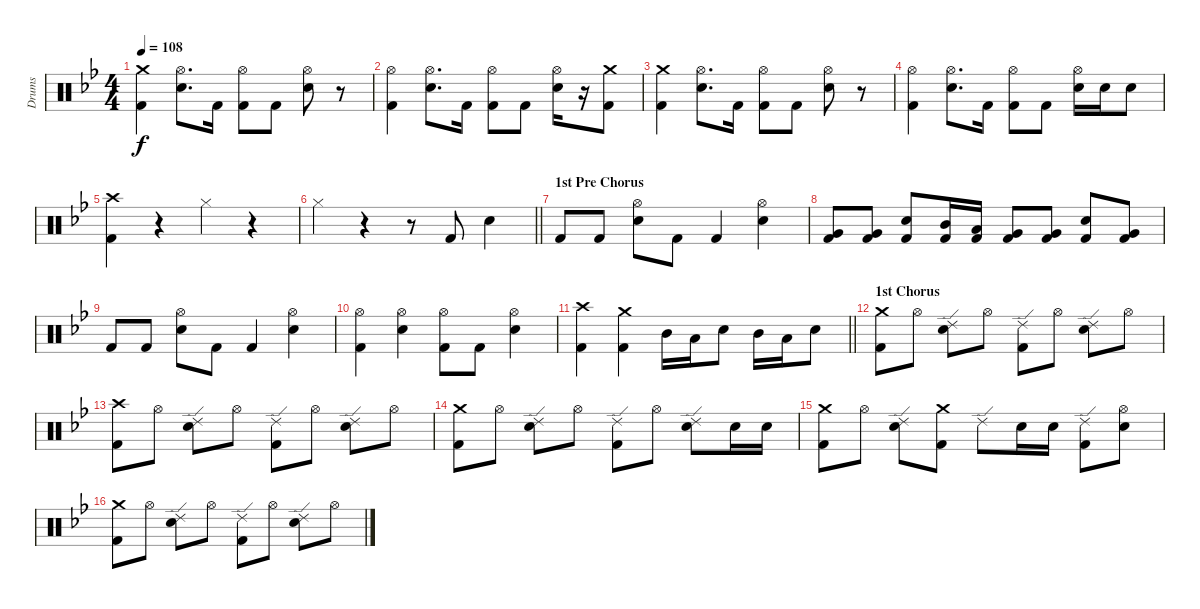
\track ("Drums" "Drums") {instrument percussion}
\staff {score}
\articulation defaults
\ts (4 4)
\tempo 108
\clef neutral
\ks gminor
("Crash medium (hit)" "Kick (hit) 2").4{dy f} ("Hi-Hat (open)" "Snare (hit) 2").8{d} "Kick (hit) 2".16 ("Hi-Hat (open)" "Kick (hit) 2").8 "Kick (hit) 2".8 ("Hi-Hat (open)" "Snare (hit) 2").8 r.8 |
("Hi-Hat (open)" "Kick (hit) 2").4 ("Hi-Hat (open)" "Snare (hit) 2").8{d} "Kick (hit) 2".16 ("Hi-Hat (open)" "Kick (hit) 2").8 "Kick (hit) 2".8 ("Hi-Hat (open)" "Snare (hit) 2").16 r.16 ("Crash medium (hit)" "Kick (hit) 2").8 |
("Crash medium (hit)" "Kick (hit) 2").4 ("Hi-Hat (open)" "Snare (hit) 2").8{d} "Kick (hit) 2".16 ("Hi-Hat (open)" "Kick (hit) 2").8 "Kick (hit) 2".8 ("Hi-Hat (open)" "Snare (hit) 2").8 r.8 |
("Hi-Hat (open)" "Kick (hit) 2").4 ("Hi-Hat (open)" "Snare (hit) 2").8{d} "Kick (hit) 2".16 ("Hi-Hat (open)" "Kick (hit) 2").8 "Kick (hit) 2".8 ("Hi-Hat (open)" "Snare (hit) 2").16 "Snare (hit) 2".16 "Snare (hit) 2".8 |
("Crash high (hit)" "Kick (hit) 2").4 r.4 "Hi-Hat (closed)".4 r.4 |
\barLineRight lightlight "Hi-Hat (closed)".4
r.4 r.8 "Kick (hit) 2".8 "Snare (hit) 2".4 |
\section ("" "1st Pre Chorus")
"Kick (hit) 2".8 "Kick (hit) 2".8 ("Hi-Hat (open)" "Snare (hit) 2").8 "Kick (hit) 2".8 "Kick (hit) 2".4 ("Hi-Hat (open)" "Snare (hit) 2").4 |
("Very Low Tom (hit)" "Kick (hit) 2").8 ("Very Low Tom (hit)" "Kick (hit) 2").8 ("Snare (hit) 2" "Kick (hit) 2").8 ("Mid Tom (hit)" "Kick (hit) 2").16 ("Low Tom (hit)" "Kick (hit) 2").16 ("Very Low Tom (hit)" "Kick (hit) 2").8 ("Very Low Tom (hit)" "Kick (hit) 2").8 ("Snare (hit) 2" "Kick (hit) 2").8 ("Very Low Tom (hit)" "Kick (hit) 2").8 |
"Kick (hit) 2".8 "Kick (hit) 2".8 ("Hi-Hat (open)" "Snare (hit) 2").8 "Kick (hit) 2".8 "Kick (hit) 2".4 ("Hi-Hat (open)" "Snare (hit) 2").4 |
("Hi-Hat (open)" "Kick (hit) 2").4 ("Hi-Hat (open)" "Snare (hit) 2").4 ("Hi-Hat (open)" "Kick (hit) 2").8 "Kick (hit) 2".8 ("Hi-Hat (open)" "Snare (hit) 2").4 |
\barLineRight lightlight
("Crash high (hit)" "Kick (hit) 2").4 ("Crash medium (hit)" "Kick (hit) 2").4 "Mid Tom (hit)".16 "Low Tom (hit)".16 "Snare (hit) 2".8 "Mid Tom (hit)".16 "Low Tom (hit)".16 "Snare (hit) 2".8 |
\section ("" "1st Chorus")
("Crash medium (hit)" "Kick (hit) 2").8 "Hi-Hat (open)".8 ("Ride (edge) 2" "Snare (hit) 2").8 "Hi-Hat (open)".8 ("Ride (edge) 2" "Kick (hit) 2").8 "Hi-Hat (open)".8 ("Ride (edge) 2" "Snare (hit) 2").8 "Hi-Hat (open)".8 |
("Crash high (hit)" "Kick (hit) 2").8 "Hi-Hat (open)".8 ("Ride (edge) 2" "Snare (hit) 2").8 "Hi-Hat (open)".8 ("Ride (edge) 2" "Kick (hit) 2").8 "Hi-Hat (open)".8 ("Ride (edge) 2" "Snare (hit) 2").8 "Hi-Hat (open)".8 |
("Crash medium (hit)" "Kick (hit) 2").8 "Hi-Hat (open)".8 ("Ride (edge) 2" "Snare (hit) 2").8 "Hi-Hat (open)".8 ("Ride (edge) 2" "Kick (hit) 2").8 "Hi-Hat (open)".8 ("Ride (edge) 2" "Snare (hit) 2").8 "Snare (hit) 2".16 "Snare (hit) 2".16 |
("Crash medium (hit)" "Kick (hit) 2").8 "Hi-Hat (open)".8 ("Ride (edge) 2" "Snare (hit) 2").8 ("Crash medium (hit)" "Kick (hit) 2").8 "Ride (edge) 2".8 "Snare (hit) 2".16 "Snare (hit) 2".16 ("Ride (edge) 2" "Kick (hit) 2").8 ("Hi-Hat (open)" "Snare (hit) 2").8 |
("Crash medium (hit)" "Kick (hit) 2").8 "Hi-Hat (open)".8 ("Ride (edge) 2" "Snare (hit) 2").8 "Hi-Hat (open)".8 ("Ride (edge) 2" "Kick (hit) 2").8 "Hi-Hat (open)".8 ("Ride (edge) 2" "Snare (hit) 2").8 "Hi-Hat (open)".8
